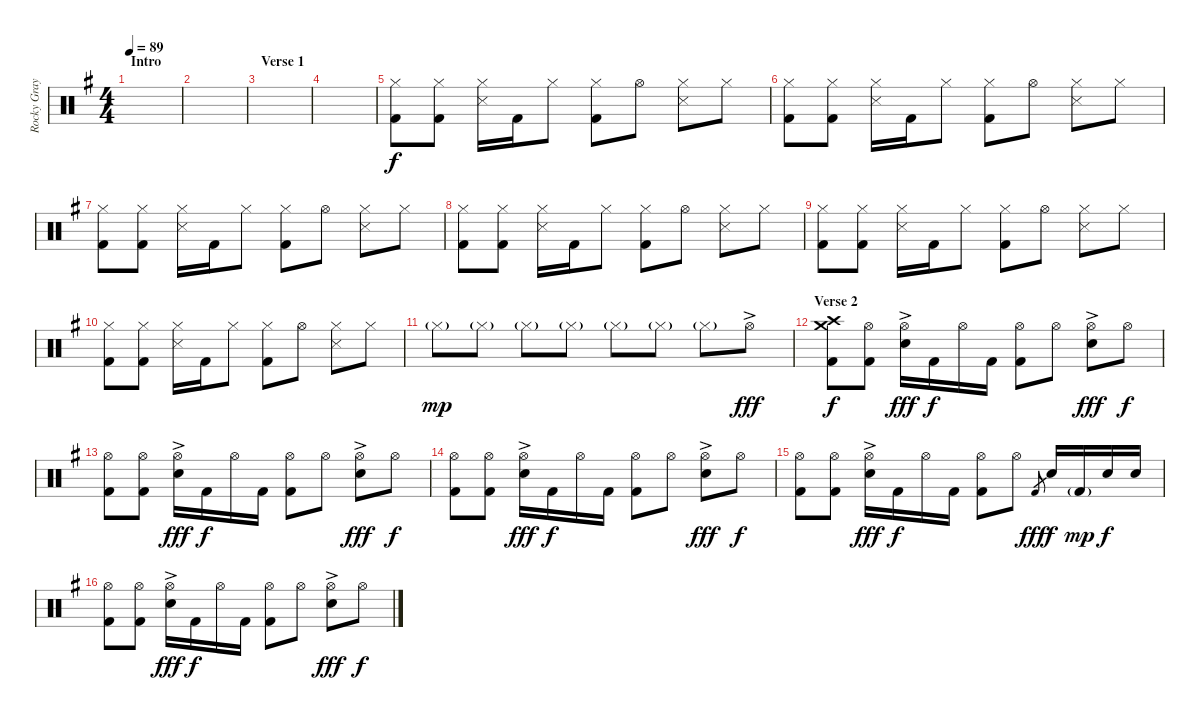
\track ("Rocky Gray" "Rocky Gray") {instrument percussion}
\staff {score}
\articulation defaults
\ts (4 4)
\section ("" "Intro")
\tempo 89
\clef neutral
\ks g
|
|
\section ("" "Verse 1")
|
|
("Hi-Hat (closed)" "Kick (hit) 2").8 ("Hi-Hat (closed)" "Kick (hit) 2").8 ("Hi-Hat (closed)" "Snare (side stick) 3").16 "Kick (hit) 2".16 "Hi-Hat (closed)".8 ("Hi-Hat (closed)" "Kick (hit) 2").8 "Hi-Hat (open)".8 ("Hi-Hat (closed)" "Snare (side stick) 3").8 "Hi-Hat (closed)".8 |
("Hi-Hat (closed)" "Kick (hit) 2").8 ("Hi-Hat (closed)" "Kick (hit) 2").8 ("Hi-Hat (closed)" "Snare (side stick) 3").16 "Kick (hit) 2".16 "Hi-Hat (closed)".8 ("Hi-Hat (closed)" "Kick (hit) 2").8 "Hi-Hat (open)".8 ("Hi-Hat (closed)" "Snare (side stick) 3").8 "Hi-Hat (closed)".8 |
("Hi-Hat (closed)" "Kick (hit) 2").8 ("Hi-Hat (closed)" "Kick (hit) 2").8 ("Hi-Hat (closed)" "Snare (side stick) 3").16 "Kick (hit) 2".16 "Hi-Hat (closed)".8 ("Hi-Hat (closed)" "Kick (hit) 2").8 "Hi-Hat (open)".8 ("Hi-Hat (closed)" "Snare (side stick) 3").8 "Hi-Hat (closed)".8 |
("Hi-Hat (closed)" "Kick (hit) 2").8 ("Hi-Hat (closed)" "Kick (hit) 2").8 ("Hi-Hat (closed)" "Snare (side stick) 3").16 "Kick (hit) 2".16 "Hi-Hat (closed)".8 ("Hi-Hat (closed)" "Kick (hit) 2").8 "Hi-Hat (open)".8 ("Hi-Hat (closed)" "Snare (side stick) 3").8 "Hi-Hat (closed)".8 |
("Hi-Hat (closed)" "Kick (hit) 2").8 ("Hi-Hat (closed)" "Kick (hit) 2").8 ("Hi-Hat (closed)" "Snare (side stick) 3").16 "Kick (hit) 2".16 "Hi-Hat (closed)".8 ("Hi-Hat (closed)" "Kick (hit) 2").8 "Hi-Hat (open)".8 ("Hi-Hat (closed)" "Snare (side stick) 3").8 "Hi-Hat (closed)".8 |
("Hi-Hat (closed)" "Kick (hit) 2").8 ("Hi-Hat (closed)" "Kick (hit) 2").8 ("Hi-Hat (closed)" "Snare (side stick) 3").16 "Kick (hit) 2".16 "Hi-Hat (closed)".8 ("Hi-Hat (closed)" "Kick (hit) 2").8 "Hi-Hat (open)".8 ("Hi-Hat (closed)" "Snare (side stick) 3").8 "Hi-Hat (closed)".8 |
"Hi-Hat (closed)"{g}.8{dy mp} "Hi-Hat (closed)"{g}.8 "Hi-Hat (closed)"{g}.8 "Hi-Hat (closed)"{g}.8 "Hi-Hat (closed)"{g}.8 "Hi-Hat (closed)"{g}.8 "Hi-Hat (closed)"{g}.8 "Hi-Hat (open)"{ac}.8{dy fff} |
\section ("" "Verse 2")
("Crash high (hit)" "Crash medium (hit)" "Kick (hit) 2").8{dy f} ("Hi-Hat (open)" "Kick (hit) 2").8 ("Hi-Hat (open)" "Snare (hit) 2"{ac}).16{dy fff} "Kick (hit) 2".16{dy f} "Hi-Hat (open)".16 "Kick (hit) 2".16 ("Hi-Hat (open)" "Kick (hit) 2").8 "Hi-Hat (open)".8 ("Hi-Hat (open)" "Snare (hit) 2"{ac}).8{dy fff} "Hi-Hat (open)".8{dy f} |
("Hi-Hat (open)" "Kick (hit) 2").8 ("Hi-Hat (open)" "Kick (hit) 2").8 ("Hi-Hat (open)" "Snare (hit) 2"{ac}).16{dy fff} "Kick (hit) 2".16{dy f} "Hi-Hat (open)".16 "Kick (hit) 2".16 ("Hi-Hat (open)" "Kick (hit) 2").8 "Hi-Hat (open)".8 ("Hi-Hat (open)" "Snare (hit) 2"{ac}).8{dy fff} "Hi-Hat (open)".8{dy f} |
("Hi-Hat (open)" "Kick (hit) 2").8 ("Hi-Hat (open)" "Kick (hit) 2").8 ("Hi-Hat (open)" "Snare (hit) 2"{ac}).16{dy fff} "Kick (hit) 2".16{dy f} "Hi-Hat (open)".16 "Kick (hit) 2".16 ("Hi-Hat (open)" "Kick (hit) 2").8 "Hi-Hat (open)".8 ("Hi-Hat (open)" "Snare (hit) 2"{ac}).8{dy fff} "Hi-Hat (open)".8{dy f} |
("Hi-Hat (open)" "Kick (hit) 2").8 ("Hi-Hat (open)" "Kick (hit) 2").8 ("Hi-Hat (open)" "Snare (hit) 2"{ac}).16{dy fff} "Kick (hit) 2".16{dy f} "Hi-Hat (open)".16 "Kick (hit) 2".16 ("Hi-Hat (open)" "Kick (hit) 2").8 "Hi-Hat (open)".8 "Kick (hit) 2".8{gr dy fff} "Snare (hit) 2".16{dy f} "Kick (hit) 2"{g}.16{dy mp} "Snare (hit) 2".16{dy f} "Snare (hit) 2".16 |
("Hi-Hat (open)" "Kick (hit) 2").8 ("Hi-Hat (open)" "Kick (hit) 2").8 ("Hi-Hat (open)" "Snare (hit) 2"{ac}).16{dy fff} "Kick (hit) 2".16{dy f} "Hi-Hat (open)".16 "Kick (hit) 2".16 ("Hi-Hat (open)" "Kick (hit) 2").8 "Hi-Hat (open)".8 ("Hi-Hat (open)" "Snare (hit) 2"{ac}).8{dy fff} "Hi-Hat (open)".8{dy f}
